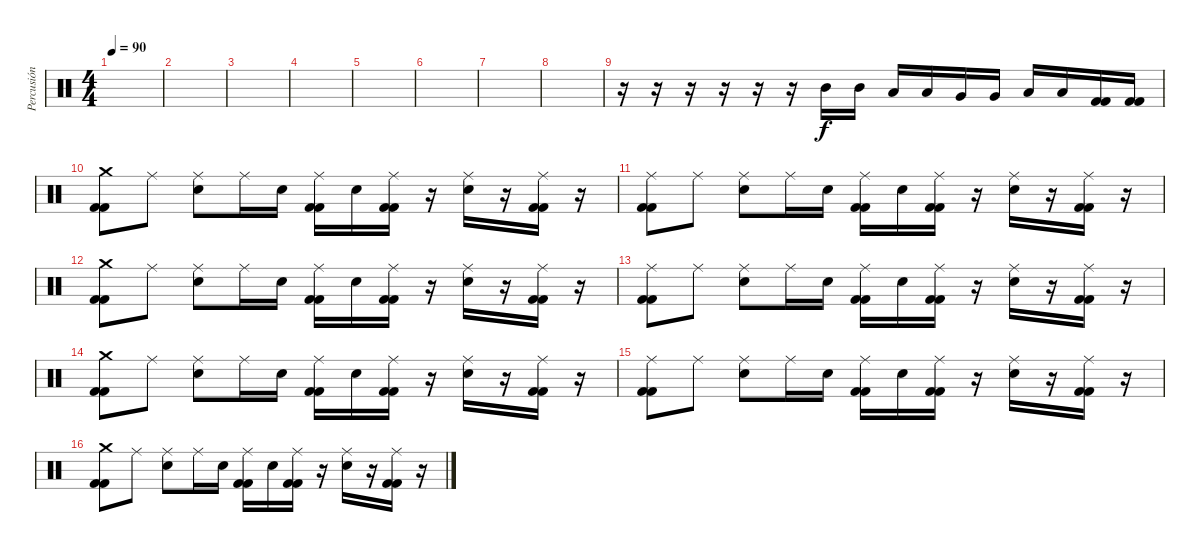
\track ("Percusión" "Percusión") {instrument percussion}
\staff {score}
\articulation defaults
\ts (4 4)
\tempo 90
\clef neutral
\ks c
|
|
|
|
|
|
|
|
r.16 r.16 r.16 r.16 r.16 r.16 "Mid Tom (hit)".16 "Mid Tom (hit)".16 "Low Tom (hit)".16 "Low Tom (hit)".16 "Very Low Tom (hit)".16 "Very Low Tom (hit)".16 "Low Floor Tom (hit)".16 "Low Floor Tom (hit)".16 ("Kick (hit) 2" "Kick (hit) 2").16 ("Kick (hit) 2" "Kick (hit) 2").16 |
("Kick (hit) 2" "Crash medium (hit)" "Kick (hit) 2").8 "Ride (middle)".8 ("Electric Snare (hit)" "Ride (middle)").8 "Ride (middle)".16 "Electric Snare (hit)".16 ("Kick (hit) 2" "Ride (middle)" "Kick (hit) 2").16 "Electric Snare (hit)".16 ("Kick (hit) 2" "Ride (middle)" "Kick (hit) 2").16 r.16 ("Electric Snare (hit)" "Ride (middle)").16 r.16 ("Kick (hit) 2" "Ride (middle)" "Kick (hit) 2").16 r.16 |
("Kick (hit) 2" "Ride (middle)" "Kick (hit) 2").8 "Ride (middle)".8 ("Electric Snare (hit)" "Ride (middle)").8 "Ride (middle)".16 "Electric Snare (hit)".16 ("Kick (hit) 2" "Ride (middle)" "Kick (hit) 2").16 "Electric Snare (hit)".16 ("Kick (hit) 2" "Ride (middle)" "Kick (hit) 2").16 r.16 ("Electric Snare (hit)" "Ride (middle)").16 r.16 ("Kick (hit) 2" "Ride (middle)" "Kick (hit) 2").16 r.16 |
("Kick (hit) 2" "Crash medium (hit)" "Kick (hit) 2").8 "Ride (middle)".8 ("Electric Snare (hit)" "Ride (middle)").8 "Ride (middle)".16 "Electric Snare (hit)".16 ("Kick (hit) 2" "Ride (middle)" "Kick (hit) 2").16 "Electric Snare (hit)".16 ("Kick (hit) 2" "Ride (middle)" "Kick (hit) 2").16 r.16 ("Electric Snare (hit)" "Ride (middle)").16 r.16 ("Kick (hit) 2" "Ride (middle)" "Kick (hit) 2").16 r.16 |
("Kick (hit) 2" "Ride (middle)" "Kick (hit) 2").8 "Ride (middle)".8 ("Electric Snare (hit)" "Ride (middle)").8 "Ride (middle)".16 "Electric Snare (hit)".16 ("Kick (hit) 2" "Ride (middle)" "Kick (hit) 2").16 "Electric Snare (hit)".16 ("Kick (hit) 2" "Ride (middle)" "Kick (hit) 2").16 r.16 ("Electric Snare (hit)" "Ride (middle)").16 r.16 ("Kick (hit) 2" "Ride (middle)" "Kick (hit) 2").16 r.16 |
("Kick (hit) 2" "Crash medium (hit)" "Kick (hit) 2").8 "Ride (middle)".8 ("Electric Snare (hit)" "Ride (middle)").8 "Ride (middle)".16 "Electric Snare (hit)".16 ("Kick (hit) 2" "Ride (middle)" "Kick (hit) 2").16 "Electric Snare (hit)".16 ("Kick (hit) 2" "Ride (middle)" "Kick (hit) 2").16 r.16 ("Electric Snare (hit)" "Ride (middle)").16 r.16 ("Kick (hit) 2" "Ride (middle)" "Kick (hit) 2").16 r.16 |
("Kick (hit) 2" "Ride (middle)" "Kick (hit) 2").8 "Ride (middle)".8 ("Electric Snare (hit)" "Ride (middle)").8 "Ride (middle)".16 "Electric Snare (hit)".16 ("Kick (hit) 2" "Ride (middle)" "Kick (hit) 2").16 "Electric Snare (hit)".16 ("Kick (hit) 2" "Ride (middle)" "Kick (hit) 2").16 r.16 ("Electric Snare (hit)" "Ride (middle)").16 r.16 ("Kick (hit) 2" "Ride (middle)" "Kick (hit) 2").16 r.16 |
("Kick (hit) 2" "Crash medium (hit)" "Kick (hit) 2").8 "Ride (middle)".8 ("Electric Snare (hit)" "Ride (middle)").8 "Ride (middle)".16 "Electric Snare (hit)".16 ("Kick (hit) 2" "Ride (middle)" "Kick (hit) 2").16 "Electric Snare (hit)".16 ("Kick (hit) 2" "Ride (middle)" "Kick (hit) 2").16 r.16 ("Electric Snare (hit)" "Ride (middle)").16 r.16 ("Kick (hit) 2" "Ride (middle)" "Kick (hit) 2").16 r.16
